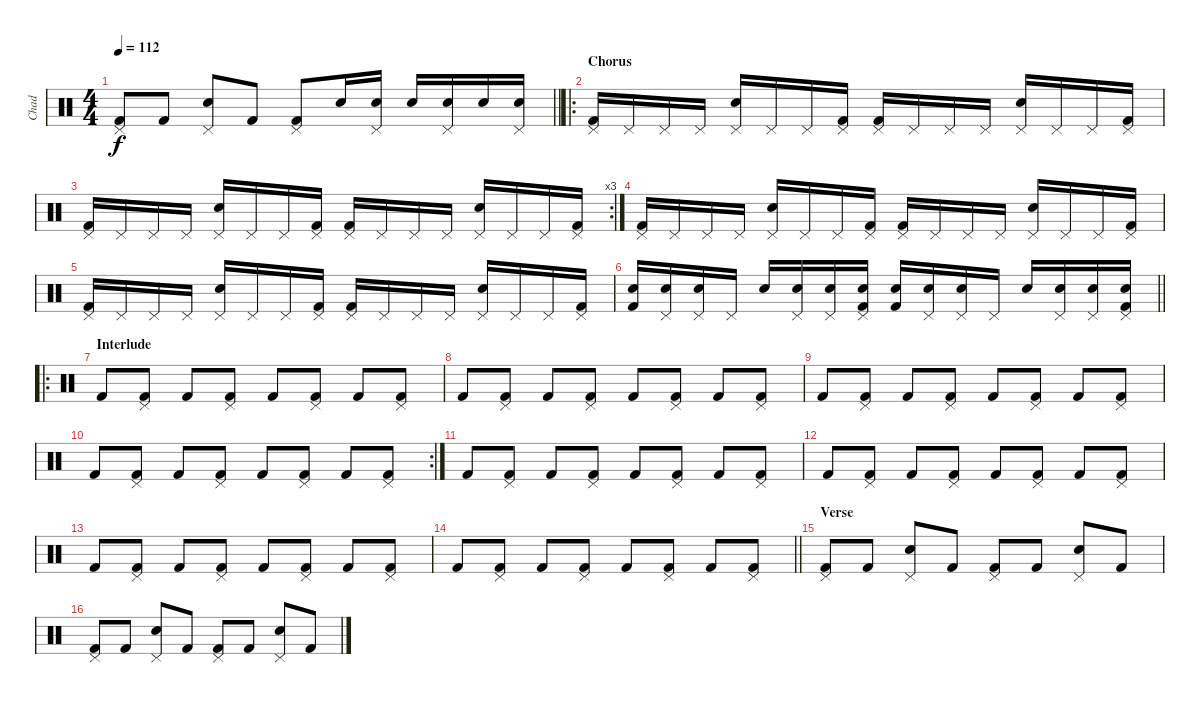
\track ("Chad" "Chad") {instrument percussion}
\staff {score}
\articulation defaults
\ts (4 4)
\tempo 112
\clef neutral
\barLineRight lightlight
\ks c
("Kick (hit) 2" "Pedal Hi-Hat (hit)").8{dy f} "Kick (hit) 2".8 ("Snare (hit) 2" "Pedal Hi-Hat (hit)").8 "Kick (hit) 2".8 ("Kick (hit) 2" "Pedal Hi-Hat (hit)").8 "Snare (hit) 2".16 ("Snare (hit) 2" "Pedal Hi-Hat (hit)").16 "Snare (hit) 2".16 ("Snare (hit) 2" "Pedal Hi-Hat (hit)").16 "Snare (hit) 2".16 ("Snare (hit) 2" "Pedal Hi-Hat (hit)").16 |
\ro
\section ("" "Chorus")
("Kick (hit) 2" "Pedal Hi-Hat (hit)").16 "Pedal Hi-Hat (hit)".16 "Pedal Hi-Hat (hit)".16 "Pedal Hi-Hat (hit)".16 ("Snare (hit) 2" "Pedal Hi-Hat (hit)").16 "Pedal Hi-Hat (hit)".16 "Pedal Hi-Hat (hit)".16 ("Kick (hit) 2" "Pedal Hi-Hat (hit)").16 ("Kick (hit) 2" "Pedal Hi-Hat (hit)").16 "Pedal Hi-Hat (hit)".16 "Pedal Hi-Hat (hit)".16 "Pedal Hi-Hat (hit)".16 ("Snare (hit) 2" "Pedal Hi-Hat (hit)").16 "Pedal Hi-Hat (hit)".16 "Pedal Hi-Hat (hit)".16 ("Kick (hit) 2" "Pedal Hi-Hat (hit)").16 |
\rc 3
("Kick (hit) 2" "Pedal Hi-Hat (hit)").16 "Pedal Hi-Hat (hit)".16 "Pedal Hi-Hat (hit)".16 "Pedal Hi-Hat (hit)".16 ("Snare (hit) 2" "Pedal Hi-Hat (hit)").16 "Pedal Hi-Hat (hit)".16 "Pedal Hi-Hat (hit)".16 ("Kick (hit) 2" "Pedal Hi-Hat (hit)").16 ("Kick (hit) 2" "Pedal Hi-Hat (hit)").16 "Pedal Hi-Hat (hit)".16 "Pedal Hi-Hat (hit)".16 "Pedal Hi-Hat (hit)".16 ("Snare (hit) 2" "Pedal Hi-Hat (hit)").16 "Pedal Hi-Hat (hit)".16 "Pedal Hi-Hat (hit)".16 ("Kick (hit) 2" "Pedal Hi-Hat (hit)").16 |
("Kick (hit) 2" "Pedal Hi-Hat (hit)").16 "Pedal Hi-Hat (hit)".16 "Pedal Hi-Hat (hit)".16 "Pedal Hi-Hat (hit)".16 ("Snare (hit) 2" "Pedal Hi-Hat (hit)").16 "Pedal Hi-Hat (hit)".16 "Pedal Hi-Hat (hit)".16 ("Kick (hit) 2" "Pedal Hi-Hat (hit)").16 ("Kick (hit) 2" "Pedal Hi-Hat (hit)").16 "Pedal Hi-Hat (hit)".16 "Pedal Hi-Hat (hit)".16 "Pedal Hi-Hat (hit)".16 ("Snare (hit) 2" "Pedal Hi-Hat (hit)").16 "Pedal Hi-Hat (hit)".16 "Pedal Hi-Hat (hit)".16 ("Kick (hit) 2" "Pedal Hi-Hat (hit)").16 |
("Kick (hit) 2" "Pedal Hi-Hat (hit)").16 "Pedal Hi-Hat (hit)".16 "Pedal Hi-Hat (hit)".16 "Pedal Hi-Hat (hit)".16 ("Snare (hit) 2" "Pedal Hi-Hat (hit)").16 "Pedal Hi-Hat (hit)".16 "Pedal Hi-Hat (hit)".16 ("Kick (hit) 2" "Pedal Hi-Hat (hit)").16 ("Kick (hit) 2" "Pedal Hi-Hat (hit)").16 "Pedal Hi-Hat (hit)".16 "Pedal Hi-Hat (hit)".16 "Pedal Hi-Hat (hit)".16 ("Snare (hit) 2" "Pedal Hi-Hat (hit)").16 "Pedal Hi-Hat (hit)".16 "Pedal Hi-Hat (hit)".16 ("Kick (hit) 2" "Pedal Hi-Hat (hit)").16 |
\barLineRight lightlight
("Kick (hit) 2" "Snare (hit) 2").16 ("Snare (hit) 2" "Pedal Hi-Hat (hit)").16 ("Snare (hit) 2" "Pedal Hi-Hat (hit)").16 "Pedal Hi-Hat (hit)".16 "Snare (hit) 2".16 ("Snare (hit) 2" "Pedal Hi-Hat (hit)").16 ("Snare (hit) 2" "Pedal Hi-Hat (hit)").16 ("Kick (hit) 2" "Snare (hit) 2" "Pedal Hi-Hat (hit)").16 ("Kick (hit) 2" "Snare (hit) 2").16 ("Snare (hit) 2" "Pedal Hi-Hat (hit)").16 ("Snare (hit) 2" "Pedal Hi-Hat (hit)").16 "Pedal Hi-Hat (hit)".16 "Snare (hit) 2".16 ("Snare (hit) 2" "Pedal Hi-Hat (hit)").16 ("Snare (hit) 2" "Pedal Hi-Hat (hit)").16 ("Kick (hit) 2" "Snare (hit) 2" "Pedal Hi-Hat (hit)").16 |
\ro
\section ("" "Interlude")
"Kick (hit) 2".8 ("Kick (hit) 2" "Pedal Hi-Hat (hit)").8 "Kick (hit) 2".8 ("Kick (hit) 2" "Pedal Hi-Hat (hit)").8 "Kick (hit) 2".8 ("Kick (hit) 2" "Pedal Hi-Hat (hit)").8 "Kick (hit) 2".8 ("Kick (hit) 2" "Pedal Hi-Hat (hit)").8 |
"Kick (hit) 2".8 ("Kick (hit) 2" "Pedal Hi-Hat (hit)").8 "Kick (hit) 2".8 ("Kick (hit) 2" "Pedal Hi-Hat (hit)").8 "Kick (hit) 2".8 ("Kick (hit) 2" "Pedal Hi-Hat (hit)").8 "Kick (hit) 2".8 ("Kick (hit) 2" "Pedal Hi-Hat (hit)").8 |
"Kick (hit) 2".8 ("Kick (hit) 2" "Pedal Hi-Hat (hit)").8 "Kick (hit) 2".8 ("Kick (hit) 2" "Pedal Hi-Hat (hit)").8 "Kick (hit) 2".8 ("Kick (hit) 2" "Pedal Hi-Hat (hit)").8 "Kick (hit) 2".8 ("Kick (hit) 2" "Pedal Hi-Hat (hit)").8 |
\rc 2 "Kick (hit) 2".8
("Kick (hit) 2" "Pedal Hi-Hat (hit)").8 "Kick (hit) 2".8 ("Kick (hit) 2" "Pedal Hi-Hat (hit)").8 "Kick (hit) 2".8 ("Kick (hit) 2" "Pedal Hi-Hat (hit)").8 "Kick (hit) 2".8 ("Kick (hit) 2" "Pedal Hi-Hat (hit)").8 |
"Kick (hit) 2".8 ("Kick (hit) 2" "Pedal Hi-Hat (hit)").8 "Kick (hit) 2".8 ("Kick (hit) 2" "Pedal Hi-Hat (hit)").8 "Kick (hit) 2".8 ("Kick (hit) 2" "Pedal Hi-Hat (hit)").8 "Kick (hit) 2".8 ("Kick (hit) 2" "Pedal Hi-Hat (hit)").8 |
"Kick (hit) 2".8 ("Kick (hit) 2" "Pedal Hi-Hat (hit)").8 "Kick (hit) 2".8 ("Kick (hit) 2" "Pedal Hi-Hat (hit)").8 "Kick (hit) 2".8 ("Kick (hit) 2" "Pedal Hi-Hat (hit)").8 "Kick (hit) 2".8 ("Kick (hit) 2" "Pedal Hi-Hat (hit)").8 |
"Kick (hit) 2".8 ("Kick (hit) 2" "Pedal Hi-Hat (hit)").8 "Kick (hit) 2".8 ("Kick (hit) 2" "Pedal Hi-Hat (hit)").8 "Kick (hit) 2".8 ("Kick (hit) 2" "Pedal Hi-Hat (hit)").8 "Kick (hit) 2".8 ("Kick (hit) 2" "Pedal Hi-Hat (hit)").8 |
\barLineRight lightlight "Kick (hit) 2".8
("Kick (hit) 2" "Pedal Hi-Hat (hit)").8 "Kick (hit) 2".8 ("Kick (hit) 2" "Pedal Hi-Hat (hit)").8 "Kick (hit) 2".8 ("Kick (hit) 2" "Pedal Hi-Hat (hit)").8 "Kick (hit) 2".8 ("Kick (hit) 2" "Pedal Hi-Hat (hit)").8 |
\section ("" "Verse")
("Kick (hit) 2" "Pedal Hi-Hat (hit)").8 "Kick (hit) 2".8 ("Snare (hit) 2" "Pedal Hi-Hat (hit)").8 "Kick (hit) 2".8 ("Kick (hit) 2" "Pedal Hi-Hat (hit)").8 "Kick (hit) 2".8 ("Snare (hit) 2" "Pedal Hi-Hat (hit)").8 "Kick (hit) 2".8 |
("Kick (hit) 2" "Pedal Hi-Hat (hit)").8 "Kick (hit) 2".8 ("Snare (hit) 2" "Pedal Hi-Hat (hit)").8 "Kick (hit) 2".8 ("Kick (hit) 2" "Pedal Hi-Hat (hit)").8 "Kick (hit) 2".8 ("Snare (hit) 2" "Pedal Hi-Hat (hit)").8 "Kick (hit) 2".8
